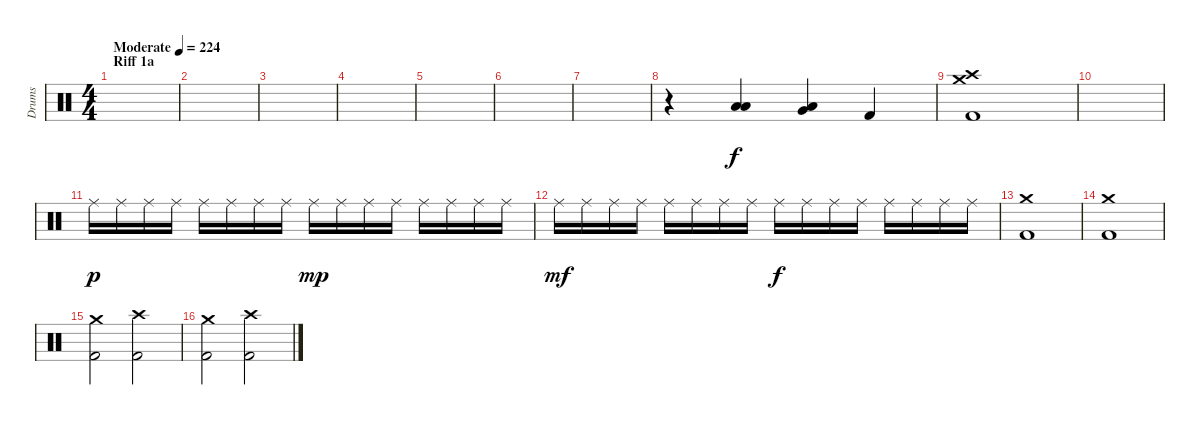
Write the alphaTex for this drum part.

\track ("Drums" "Drums") {instrument percussion}
\staff {score}
\articulation defaults
\ts (4 4)
\section ("" "Riff 1a")
\tempo (224 "Moderate")
\clef neutral
\ks c
|
|
|
|
|
|
|
r.4 ("Low Tom (hit)" "Low Floor Tom (hit)").4 ("Very Low Tom (hit)" "Low Floor Tom (hit)").4 "Kick (hit) 2".4 |
("Crash high (hit)" "Crash medium (hit)" "Kick (hit) 2").1 |
|
"Ride (middle)".16{dy p} "Ride (middle)".16 "Ride (middle)".16 "Ride (middle)".16 "Ride (middle)".16 "Ride (middle)".16 "Ride (middle)".16 "Ride (middle)".16 "Ride (middle)".16{dy mp} "Ride (middle)".16 "Ride (middle)".16 "Ride (middle)".16 "Ride (middle)".16 "Ride (middle)".16 "Ride (middle)".16 "Ride (middle)".16 |
"Ride (middle)".16{dy mf} "Ride (middle)".16 "Ride (middle)".16 "Ride (middle)".16 "Ride (middle)".16 "Ride (middle)".16 "Ride (middle)".16 "Ride (middle)".16 "Ride (middle)".16{dy f} "Ride (middle)".16 "Ride (middle)".16 "Ride (middle)".16 "Ride (middle)".16 "Ride (middle)".16 "Ride (middle)".16 "Ride (middle)".16 |
("Crash medium (hit)" "Kick (hit) 2").1 |
("Crash medium (hit)" "Kick (hit) 2").1 |
("Crash medium (hit)" "Kick (hit) 2").2 ("Crash high (hit)" "Kick (hit) 2").2 |
("Crash medium (hit)" "Kick (hit) 2").2 ("Crash high (hit)" "Kick (hit) 2").2
